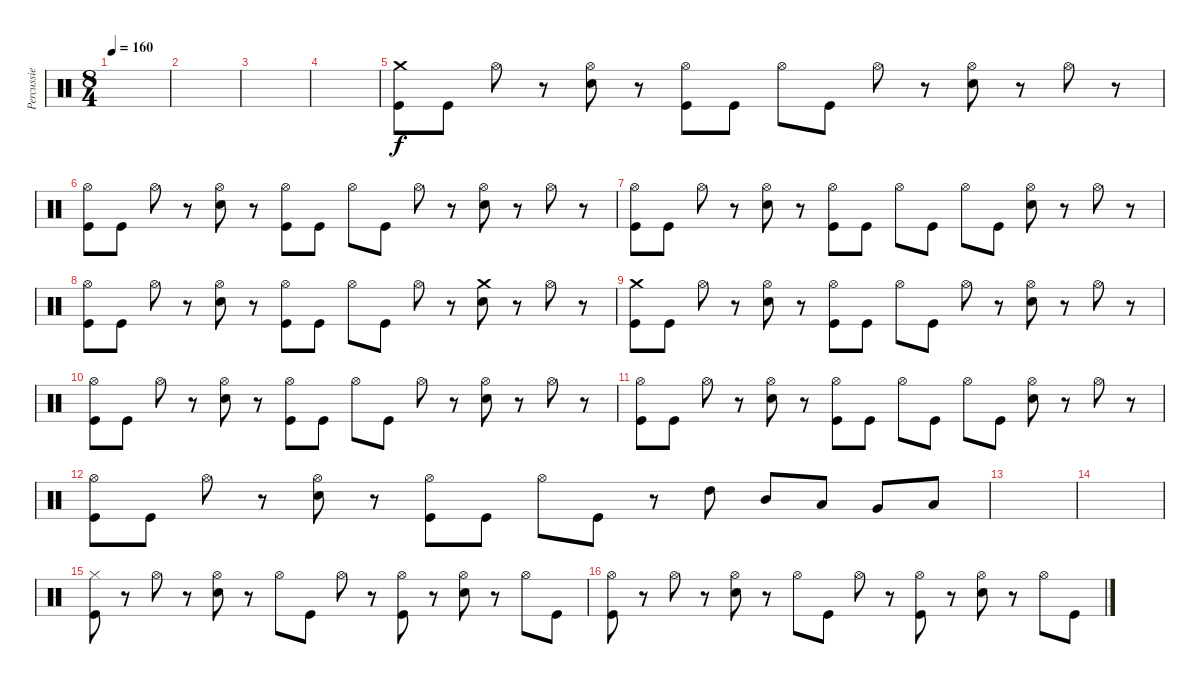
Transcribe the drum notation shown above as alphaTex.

\track ("Percussie" "Percussie") {instrument percussion}
\staff {score}
\articulation defaults
\ts (8 4)
\tempo 160
\clef neutral
\ks c
|
|
|
|
("Crash medium (hit)" "Kick (hit)").8 "Kick (hit)".8 "Hi-Hat (open)".8 r.8 ("Electric Snare (hit)" "Hi-Hat (open)").8 r.8 ("Hi-Hat (open)" "Kick (hit)").8 "Kick (hit)".8 "Hi-Hat (open)".8 "Kick (hit)".8 "Hi-Hat (open)".8 r.8 ("Electric Snare (hit)" "Hi-Hat (open)").8 r.8 "Hi-Hat (open)".8 r.8 |
("Hi-Hat (open)" "Kick (hit)").8 "Kick (hit)".8 "Hi-Hat (open)".8 r.8 ("Electric Snare (hit)" "Hi-Hat (open)").8 r.8 ("Hi-Hat (open)" "Kick (hit)").8 "Kick (hit)".8 "Hi-Hat (open)".8 "Kick (hit)".8 "Hi-Hat (open)".8 r.8 ("Electric Snare (hit)" "Hi-Hat (open)").8 r.8 "Hi-Hat (open)".8 r.8 |
("Hi-Hat (open)" "Kick (hit)").8 "Kick (hit)".8 "Hi-Hat (open)".8 r.8 ("Electric Snare (hit)" "Hi-Hat (open)").8 r.8 ("Hi-Hat (open)" "Kick (hit)").8 "Kick (hit)".8 "Hi-Hat (open)".8 "Kick (hit)".8 "Hi-Hat (open)".8 "Kick (hit)".8 ("Electric Snare (hit)" "Hi-Hat (open)").8 r.8 "Hi-Hat (open)".8 r.8 |
("Hi-Hat (open)" "Kick (hit)").8 "Kick (hit)".8 "Hi-Hat (open)".8 r.8 ("Electric Snare (hit)" "Hi-Hat (open)").8 r.8 ("Hi-Hat (open)" "Kick (hit)").8 "Kick (hit)".8 "Hi-Hat (open)".8 "Kick (hit)".8 "Hi-Hat (open)".8 r.8 ("Electric Snare (hit)" "Crash medium (hit)").8 r.8 "Hi-Hat (open)".8 r.8 |
("Crash medium (hit)" "Kick (hit)").8 "Kick (hit)".8 "Hi-Hat (open)".8 r.8 ("Electric Snare (hit)" "Hi-Hat (open)").8 r.8 ("Hi-Hat (open)" "Kick (hit)").8 "Kick (hit)".8 "Hi-Hat (open)".8 "Kick (hit)".8 "Hi-Hat (open)".8 r.8 ("Electric Snare (hit)" "Hi-Hat (open)").8 r.8 "Hi-Hat (open)".8 r.8 |
("Hi-Hat (open)" "Kick (hit)").8 "Kick (hit)".8 "Hi-Hat (open)".8 r.8 ("Electric Snare (hit)" "Hi-Hat (open)").8 r.8 ("Hi-Hat (open)" "Kick (hit)").8 "Kick (hit)".8 "Hi-Hat (open)".8 "Kick (hit)".8 "Hi-Hat (open)".8 r.8 ("Electric Snare (hit)" "Hi-Hat (open)").8 r.8 "Hi-Hat (open)".8 r.8 |
("Hi-Hat (open)" "Kick (hit)").8 "Kick (hit)".8 "Hi-Hat (open)".8 r.8 ("Electric Snare (hit)" "Hi-Hat (open)").8 r.8 ("Hi-Hat (open)" "Kick (hit)").8 "Kick (hit)".8 "Hi-Hat (open)".8 "Kick (hit)".8 "Hi-Hat (open)".8 "Kick (hit)".8 ("Electric Snare (hit)" "Hi-Hat (open)").8 r.8 "Hi-Hat (open)".8 r.8 |
("Hi-Hat (open)" "Kick (hit)").8 "Kick (hit)".8 "Hi-Hat (open)".8 r.8 ("Electric Snare (hit)" "Hi-Hat (open)").8 r.8 ("Hi-Hat (open)" "Kick (hit)").8 "Kick (hit)".8 "Hi-Hat (open)".8 "Kick (hit)".8 r.8 "High Tom (hit)".8 "Mid Tom (hit)".8 "Low Tom (hit)".8 "Very Low Tom (hit)".8 "Low Floor Tom (hit)".8 |
|
|
("Hi-Hat (closed)" "Kick (hit)").8 r.8 "Hi-Hat (open)".8 r.8 ("Electric Snare (hit)" "Hi-Hat (open)").8 r.8 "Hi-Hat (open)".8 "Kick (hit)".8 "Hi-Hat (open)".8 r.8 ("Hi-Hat (open)" "Kick (hit)").8 r.8 ("Electric Snare (hit)" "Hi-Hat (open)").8 r.8 "Hi-Hat (open)".8 "Kick (hit)".8 |
("Hi-Hat (open)" "Kick (hit)").8 r.8 "Hi-Hat (open)".8 r.8 ("Electric Snare (hit)" "Hi-Hat (open)").8 r.8 "Hi-Hat (open)".8 "Kick (hit)".8 "Hi-Hat (open)".8 r.8 ("Hi-Hat (open)" "Kick (hit)").8 r.8 ("Electric Snare (hit)" "Hi-Hat (open)").8 r.8 "Hi-Hat (open)".8 "Kick (hit)".8
